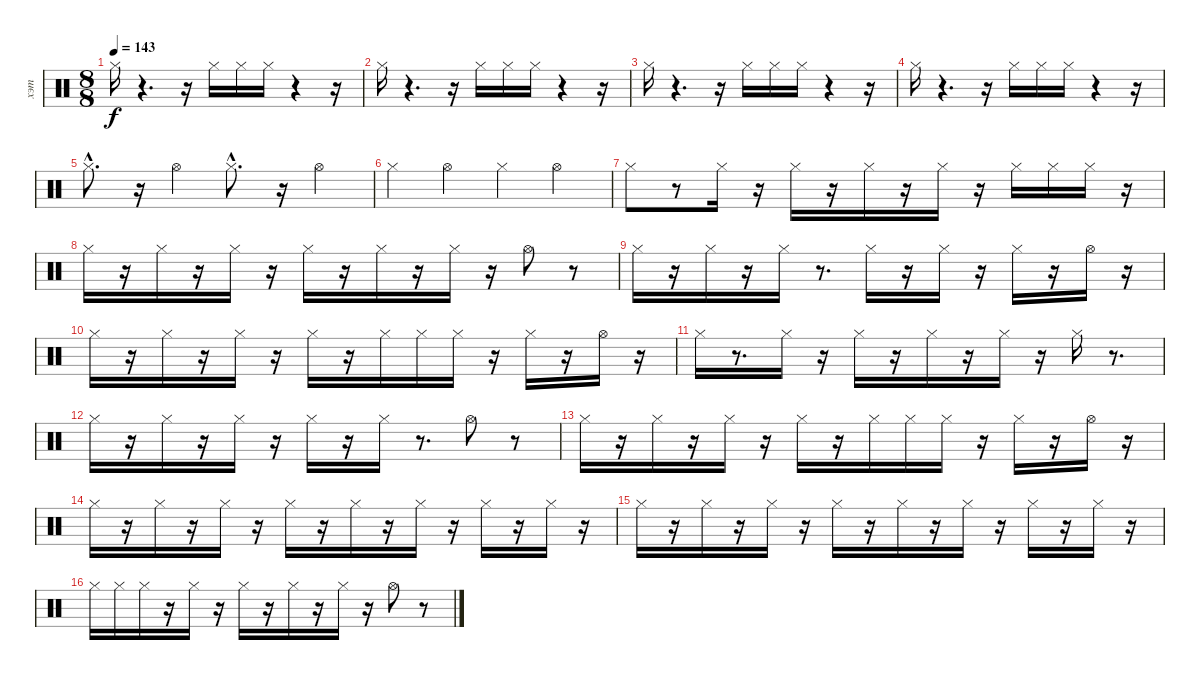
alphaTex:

\track ("хэт" "хэт") {instrument percussion}
\staff {score}
\articulation defaults
\ts (8 8)
\tempo 143
\clef neutral
\ks c "Hi-Hat (closed)".16{dy f}
r.4{d} r.16 "Hi-Hat (closed)".16 "Hi-Hat (closed)".16 "Hi-Hat (closed)".16 r.4 r.16 |
"Hi-Hat (closed)".16 r.4{d} r.16 "Hi-Hat (closed)".16 "Hi-Hat (closed)".16 "Hi-Hat (closed)".16 r.4 r.16 |
"Hi-Hat (closed)".16 r.4{d} r.16 "Hi-Hat (closed)".16 "Hi-Hat (closed)".16 "Hi-Hat (closed)".16 r.4 r.16 |
"Hi-Hat (closed)".16 r.4{d} r.16 "Hi-Hat (closed)".16 "Hi-Hat (closed)".16 "Hi-Hat (closed)".16 r.4 r.16 |
"Hi-Hat (closed)"{hac}.8{d} r.16 "Hi-Hat (open)".4 "Hi-Hat (closed)"{hac}.8{d} r.16 "Hi-Hat (open)".4 |
"Hi-Hat (closed)".4 "Hi-Hat (open)".4 "Hi-Hat (closed)".4 "Hi-Hat (open)".4 |
"Hi-Hat (closed)".8 r.8 "Hi-Hat (closed)".16 r.16 "Hi-Hat (closed)".16 r.16 "Hi-Hat (closed)".16 r.16 "Hi-Hat (closed)".16 r.16 "Hi-Hat (closed)".16 "Hi-Hat (closed)".16 "Hi-Hat (closed)".16 r.16 |
"Hi-Hat (closed)".16 r.16 "Hi-Hat (closed)".16 r.16 "Hi-Hat (closed)".16 r.16 "Hi-Hat (closed)".16 r.16 "Hi-Hat (closed)".16 r.16 "Hi-Hat (closed)".16 r.16 "Hi-Hat (open)".8 r.8 |
"Hi-Hat (closed)".16 r.16 "Hi-Hat (closed)".16 r.16 "Hi-Hat (closed)".16 r.8{d} "Hi-Hat (closed)".16 r.16 "Hi-Hat (closed)".16 r.16 "Hi-Hat (closed)".16 r.16 "Hi-Hat (open)".16 r.16 |
"Hi-Hat (closed)".16 r.16 "Hi-Hat (closed)".16 r.16 "Hi-Hat (closed)".16 r.16 "Hi-Hat (closed)".16 r.16 "Hi-Hat (closed)".16 "Hi-Hat (closed)".16 "Hi-Hat (closed)".16 r.16 "Hi-Hat (closed)".16 r.16 "Hi-Hat (open)".16 r.16 |
"Hi-Hat (closed)".16 r.8{d} "Hi-Hat (closed)".16 r.16 "Hi-Hat (closed)".16 r.16 "Hi-Hat (closed)".16 r.16 "Hi-Hat (closed)".16 r.16 "Hi-Hat (closed)".16 r.8{d} |
"Hi-Hat (closed)".16 r.16 "Hi-Hat (closed)".16 r.16 "Hi-Hat (closed)".16 r.16 "Hi-Hat (closed)".16 r.16 "Hi-Hat (closed)".16 r.8{d} "Hi-Hat (open)".8 r.8 |
"Hi-Hat (closed)".16 r.16 "Hi-Hat (closed)".16 r.16 "Hi-Hat (closed)".16 r.16 "Hi-Hat (closed)".16 r.16 "Hi-Hat (closed)".16 "Hi-Hat (closed)".16 "Hi-Hat (closed)".16 r.16 "Hi-Hat (closed)".16 r.16 "Hi-Hat (open)".16 r.16 |
"Hi-Hat (closed)".16 r.16 "Hi-Hat (closed)".16 r.16 "Hi-Hat (closed)".16 r.16 "Hi-Hat (closed)".16 r.16 "Hi-Hat (closed)".16 r.16 "Hi-Hat (closed)".16 r.16 "Hi-Hat (closed)".16 r.16 "Hi-Hat (closed)".16 r.16 |
"Hi-Hat (closed)".16 r.16 "Hi-Hat (closed)".16 r.16 "Hi-Hat (closed)".16 r.16 "Hi-Hat (closed)".16 r.16 "Hi-Hat (closed)".16 r.16 "Hi-Hat (closed)".16 r.16 "Hi-Hat (closed)".16 r.16 "Hi-Hat (closed)".16 r.16 |
"Hi-Hat (closed)".16 "Hi-Hat (closed)".16 "Hi-Hat (closed)".16 r.16 "Hi-Hat (closed)".16 r.16 "Hi-Hat (closed)".16 r.16 "Hi-Hat (closed)".16 r.16 "Hi-Hat (closed)".16 r.16 "Hi-Hat (open)".8 r.8
